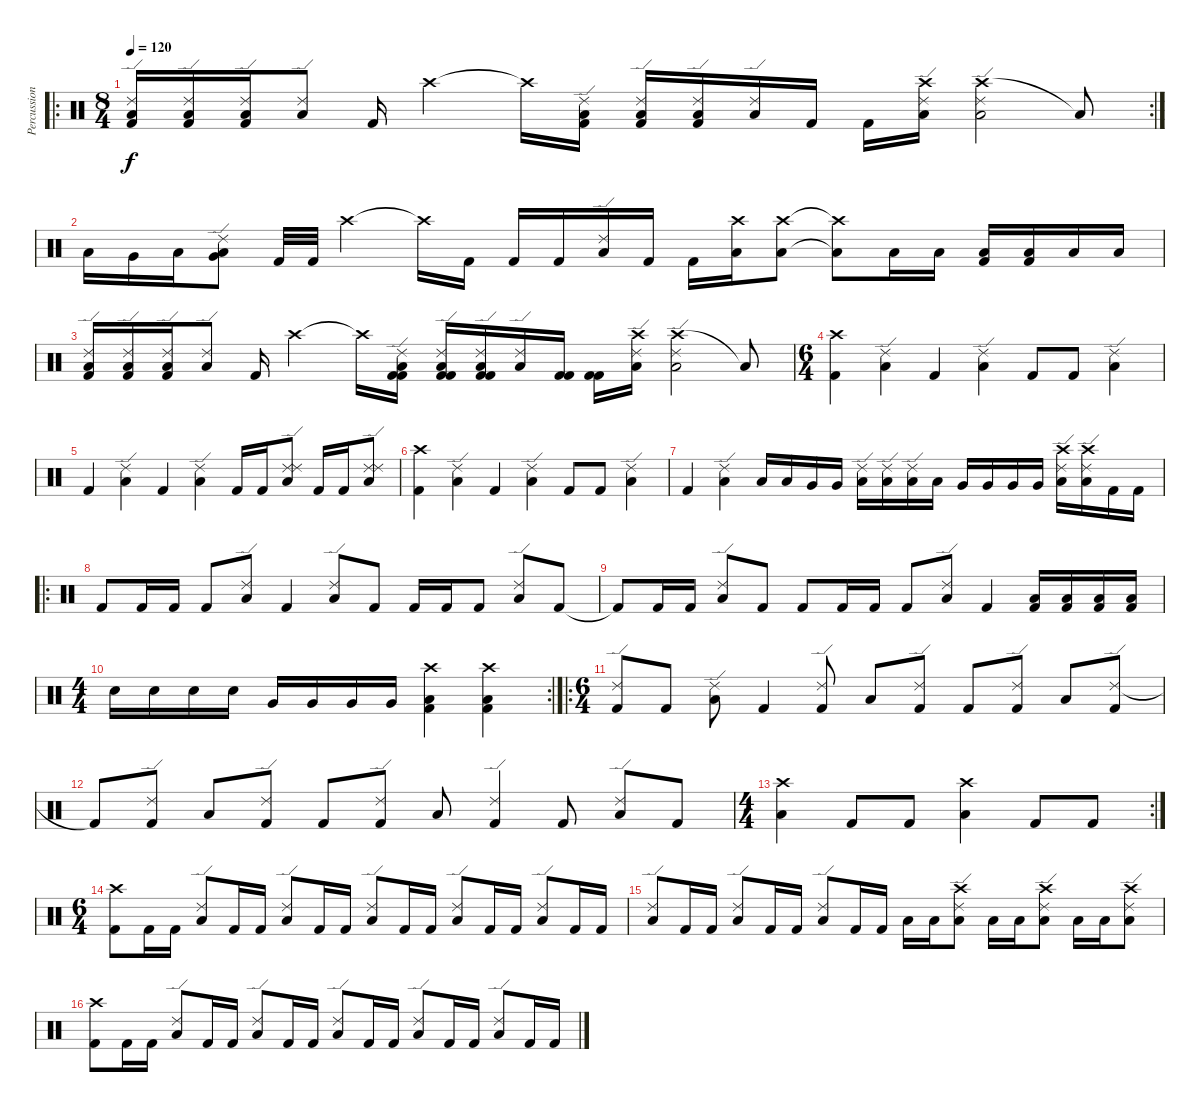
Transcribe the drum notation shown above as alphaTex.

\track ("Percussions" "Percussion") {instrument percussion}
\staff {score}
\articulation defaults
\ro
\rc 2
\ts (8 4)
\tempo 120
\clef neutral
\ks c
("Ride (edge) 2" "Low Floor Tom (hit)" "Kick (hit) 2").16{dy f} ("Ride (edge) 2" "Low Floor Tom (hit)" "Kick (hit) 2").16 ("Ride (edge) 2" "Low Floor Tom (hit)" "Kick (hit) 2").16 ("Ride (edge) 2" "Low Tom (hit)").8 "Kick (hit) 2".16 "Crash high (hit)".2 "Crash high (hit)"{t}.16 ("Ride (edge) 2" "Low Floor Tom (hit)" "Kick (hit) 2").16 ("Ride (edge) 2" "Low Floor Tom (hit)" "Kick (hit) 2").16 ("Ride (edge) 2" "Low Floor Tom (hit)" "Kick (hit) 2").16 ("Ride (edge) 2" "Low Tom (hit)").16 "Kick (hit) 2".16 "Kick (hit) 2".16 ("Crash high (hit)" "Ride (edge) 2" "Low Tom (hit)").16 ("Crash high (hit)" "Ride (edge) 2" "Low Tom (hit)").2 "Low Tom (hit)"{t}.8 |
"Low Floor Tom (hit)".16 "Very Low Tom (hit)".16 "Low Floor Tom (hit)".16 ("Ride (edge) 2" "Low Tom (hit)" "Very Low Tom (hit)").8 "Kick (hit) 2".32 "Kick (hit) 2".32 "Crash high (hit)".2 "Crash high (hit)"{t}.16 "Kick (hit) 2".16 "Kick (hit) 2".16 "Kick (hit) 2".16 ("Ride (edge) 2" "Low Tom (hit)").16 "Kick (hit) 2".16 "Kick (hit) 2".16 ("Crash high (hit)" "Low Floor Tom (hit)").16 ("Crash high (hit)" "Low Floor Tom (hit)").8 ("Crash high (hit)"{t} "Low Floor Tom (hit)"{t}).8 "Low Floor Tom (hit)".16 "Low Floor Tom (hit)".16 ("Low Floor Tom (hit)" "Kick (hit) 2").16 ("Low Floor Tom (hit)" "Kick (hit) 2").16 "Low Tom (hit)".16 "Low Tom (hit)".16 |
("Ride (edge) 2" "Low Floor Tom (hit)" "Kick (hit) 2").16 ("Ride (edge) 2" "Low Floor Tom (hit)" "Kick (hit) 2").16 ("Ride (edge) 2" "Low Floor Tom (hit)" "Kick (hit) 2").16 ("Ride (edge) 2" "Low Tom (hit)").8 "Kick (hit) 2".16 "Crash high (hit)".2 "Crash high (hit)"{t}.16 ("Kick (hit) 2" "Ride (edge) 2" "Low Floor Tom (hit)" "Kick (hit) 2").16 ("Kick (hit) 2" "Ride (edge) 2" "Low Floor Tom (hit)" "Kick (hit) 2").16 ("Kick (hit) 2" "Ride (edge) 2" "Low Floor Tom (hit)" "Kick (hit) 2").16 ("Ride (edge) 2" "Low Tom (hit)").16 ("Kick (hit) 2" "Kick (hit) 2").16 ("Kick (hit) 2" "Kick (hit) 2").16 ("Crash high (hit)" "Ride (edge) 2" "Low Tom (hit)").16 ("Crash high (hit)" "Ride (edge) 2" "Low Tom (hit)").2 "Low Tom (hit)"{t}.8 |
\ts (6 4)
("Crash high (hit)" "Kick (hit) 2").4 ("Ride (edge) 2" "Low Tom (hit)").4 "Kick (hit) 2".4 ("Ride (edge) 2" "Low Tom (hit)").4 "Kick (hit) 2".8 "Kick (hit) 2".8 ("Ride (edge) 2" "Low Tom (hit)").4 |
"Kick (hit) 2".4 ("Ride (edge) 2" "Low Tom (hit)").4 "Kick (hit) 2".4 ("Ride (edge) 2" "Low Tom (hit)").4 "Kick (hit) 2".16 "Kick (hit) 2".16 ("Ride (edge) 2" "Ride (edge) 2" "Low Tom (hit)").8 "Kick (hit) 2".16 "Kick (hit) 2".16 ("Ride (edge) 2" "Ride (edge) 2" "Low Tom (hit)").8 |
("Crash high (hit)" "Kick (hit) 2").4 ("Ride (edge) 2" "Low Tom (hit)").4 "Kick (hit) 2".4 ("Ride (edge) 2" "Low Tom (hit)").4 "Kick (hit) 2".8 "Kick (hit) 2".8 ("Ride (edge) 2" "Low Tom (hit)").4 |
"Kick (hit) 2".4 ("Ride (edge) 2" "Low Tom (hit)").4 "Low Tom (hit)".16 "Low Tom (hit)".16 "Very Low Tom (hit)".16 "Very Low Tom (hit)".16 ("Ride (edge) 2" "Low Tom (hit)").16 ("Ride (edge) 2" "Low Tom (hit)").16 ("Ride (edge) 2" "Low Tom (hit)").16 "Low Tom (hit)".16 "Very Low Tom (hit)".16 "Very Low Tom (hit)".16 "Very Low Tom (hit)".16 "Very Low Tom (hit)".16 ("Crash high (hit)" "Ride (edge) 2" "Low Tom (hit)").16 ("Crash high (hit)" "Ride (edge) 2" "Low Tom (hit)").16 "Kick (hit) 2".16 "Kick (hit) 2".16 |
\ro "Kick (hit) 2".8 "Kick (hit) 2".16 "Kick (hit) 2".16 "Kick (hit) 2".8
("Ride (edge) 2" "Low Tom (hit)").8 "Kick (hit) 2".4 ("Ride (edge) 2" "Low Tom (hit)").8 "Kick (hit) 2".8 "Kick (hit) 2".16 "Kick (hit) 2".16 "Kick (hit) 2".8 ("Ride (edge) 2" "Low Tom (hit)").8 "Kick (hit) 2".8 |
"Kick (hit) 2"{t}.8 "Kick (hit) 2".16 "Kick (hit) 2".16 ("Ride (edge) 2" "Low Tom (hit)").8 "Kick (hit) 2".8 "Kick (hit) 2".8 "Kick (hit) 2".16 "Kick (hit) 2".16 "Kick (hit) 2".8 ("Ride (edge) 2" "Low Tom (hit)").8 "Kick (hit) 2".4 ("Low Floor Tom (hit)" "Kick (hit) 2").16 ("Low Floor Tom (hit)" "Kick (hit) 2").16 ("Low Floor Tom (hit)" "Kick (hit) 2").16 ("Low Floor Tom (hit)" "Kick (hit) 2").16 |
\rc 2
\ts (4 4)
"Electric Snare (hit)".16 "Electric Snare (hit)".16 "Electric Snare (hit)".16 "Electric Snare (hit)".16 "Very Low Tom (hit)".16 "Very Low Tom (hit)".16 "Very Low Tom (hit)".16 "Very Low Tom (hit)".16 ("Crash high (hit)" "Kick (hit) 2" "Low Tom (hit)").4 ("Crash high (hit)" "Kick (hit) 2" "Low Tom (hit)").4 |
\ro
\ts (6 4)
("Ride (edge) 2" "Kick (hit) 2").8 "Kick (hit) 2".8 ("Ride (edge) 2" "Low Tom (hit)").8 "Kick (hit) 2".4 ("Ride (edge) 2" "Kick (hit) 2").8 "Low Tom (hit)".8 ("Ride (edge) 2" "Kick (hit) 2").8 "Kick (hit) 2".8 ("Ride (edge) 2" "Kick (hit) 2").8 "Low Tom (hit)".8 ("Ride (edge) 2" "Kick (hit) 2").8 |
"Kick (hit) 2"{t}.8 ("Ride (edge) 2" "Kick (hit) 2").8 "Low Tom (hit)".8 ("Ride (edge) 2" "Kick (hit) 2").8 "Kick (hit) 2".8 ("Ride (edge) 2" "Kick (hit) 2").8 "Low Tom (hit)".8 ("Ride (edge) 2" "Kick (hit) 2").4 "Kick (hit) 2".8 ("Ride (edge) 2" "Low Tom (hit)").8 "Kick (hit) 2".8 |
\rc 2
\ts (4 4)
("Crash high (hit)" "Low Tom (hit)").4 "Kick (hit) 2".8 "Kick (hit) 2".8 ("Crash high (hit)" "Low Tom (hit)").4 "Kick (hit) 2".8 "Kick (hit) 2".8 |
\ts (6 4)
("Crash high (hit)" "Kick (hit) 2").8 "Kick (hit) 2".16 "Kick (hit) 2".16 ("Ride (edge) 2" "Low Tom (hit)").8 "Kick (hit) 2".16 "Kick (hit) 2".16 ("Ride (edge) 2" "Low Tom (hit)").8 "Kick (hit) 2".16 "Kick (hit) 2".16 ("Ride (edge) 2" "Low Tom (hit)").8 "Kick (hit) 2".16 "Kick (hit) 2".16 ("Ride (edge) 2" "Low Tom (hit)").8 "Kick (hit) 2".16 "Kick (hit) 2".16 ("Ride (edge) 2" "Low Tom (hit)").8 "Kick (hit) 2".16 "Kick (hit) 2".16 |
("Ride (edge) 2" "Low Tom (hit)").8 "Kick (hit) 2".16 "Kick (hit) 2".16 ("Ride (edge) 2" "Low Tom (hit)").8 "Kick (hit) 2".16 "Kick (hit) 2".16 ("Ride (edge) 2" "Low Tom (hit)").8 "Kick (hit) 2".16 "Kick (hit) 2".16 "Low Floor Tom (hit)".16 "Low Floor Tom (hit)".16 ("Crash high (hit)" "Ride (edge) 2" "Low Tom (hit)").8 "Low Floor Tom (hit)".16 "Low Floor Tom (hit)".16 ("Crash high (hit)" "Ride (edge) 2" "Low Tom (hit)").8 "Low Floor Tom (hit)".16 "Low Floor Tom (hit)".16 ("Crash high (hit)" "Ride (edge) 2" "Low Tom (hit)").8 |
("Crash high (hit)" "Kick (hit) 2").8 "Kick (hit) 2".16 "Kick (hit) 2".16 ("Ride (edge) 2" "Low Tom (hit)").8 "Kick (hit) 2".16 "Kick (hit) 2".16 ("Ride (edge) 2" "Low Tom (hit)").8 "Kick (hit) 2".16 "Kick (hit) 2".16 ("Ride (edge) 2" "Low Tom (hit)").8 "Kick (hit) 2".16 "Kick (hit) 2".16 ("Ride (edge) 2" "Low Tom (hit)").8 "Kick (hit) 2".16 "Kick (hit) 2".16 ("Ride (edge) 2" "Low Tom (hit)").8 "Kick (hit) 2".16 "Kick (hit) 2".16
